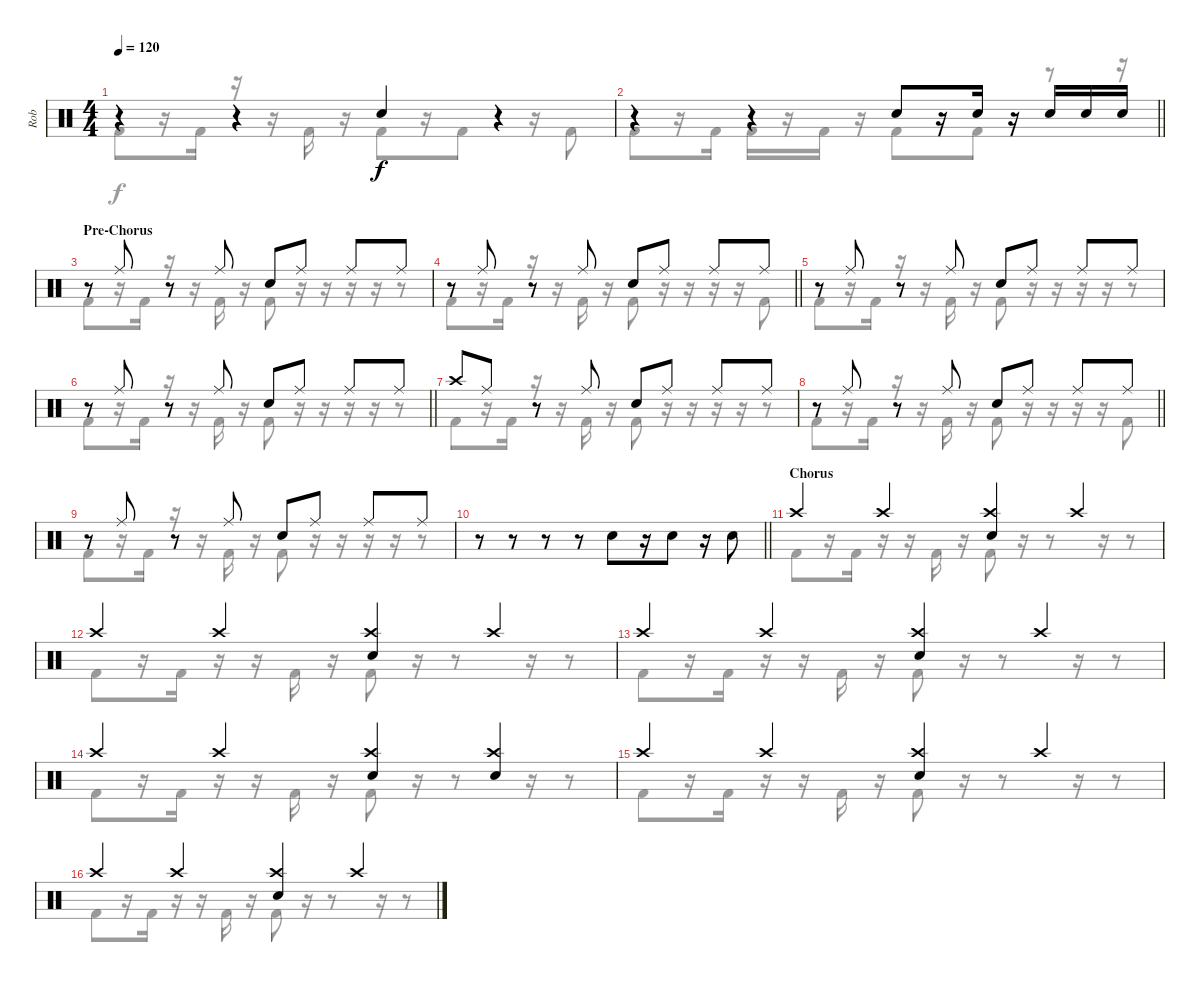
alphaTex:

\track ("Rob" "Rob") {instrument percussion}
\staff {score}
\articulation defaults
\voice
\ts (4 4)
\tempo 120
\clef neutral
\ks c
r.4{dy f} r.4 "Snare (hit) 2".4 r.4 |
\barLineRight lightlight
r.4 r.4 "Snare (hit) 2".8 r.16 "Snare (hit) 2".16 r.16 "Snare (hit) 2".16 "Snare (hit) 2".16 "Snare (hit) 2".16 |
\section ("" "Pre-Chorus")
r.8 "Ride (middle)".8 r.8 "Ride (middle)".8 "Snare (hit) 2".8 "Ride (middle)".8 "Ride (middle)".8 "Ride (middle)".8 |
\barLineRight lightlight
r.8 "Ride (middle)".8 r.8 "Ride (middle)".8 "Snare (hit) 2".8 "Ride (middle)".8 "Ride (middle)".8 "Ride (middle)".8 |
r.8 "Ride (middle)".8 r.8 "Ride (middle)".8 "Snare (hit) 2".8 "Ride (middle)".8 "Ride (middle)".8 "Ride (middle)".8 |
\barLineRight lightlight
r.8 "Ride (middle)".8 r.8 "Ride (middle)".8 "Snare (hit) 2".8 "Ride (middle)".8 "Ride (middle)".8 "Ride (middle)".8 |
"Crash high (hit)".8 "Ride (middle)".8 r.8 "Ride (middle)".8 "Snare (hit) 2".8 "Ride (middle)".8 "Ride (middle)".8 "Ride (middle)".8 |
\barLineRight lightlight
r.8 "Ride (middle)".8 r.8 "Ride (middle)".8 "Snare (hit) 2".8 "Ride (middle)".8 "Ride (middle)".8 "Ride (middle)".8 |
r.8 "Ride (middle)".8 r.8 "Ride (middle)".8 "Snare (hit) 2".8 "Ride (middle)".8 "Ride (middle)".8 "Ride (middle)".8 |
\barLineRight lightlight
r.8 r.8 r.8 r.8 "Snare (hit) 2".8 r.16 "Snare (hit) 2".8 r.16 "Snare (hit) 2".8 |
\section ("" "Chorus")
"Crash high (hit)".4 "Crash high (hit)".4 ("Crash high (hit)" "Snare (hit) 2").4 "Crash high (hit)".4 |
"Crash high (hit)".4 "Crash high (hit)".4 ("Crash high (hit)" "Snare (hit) 2").4 "Crash high (hit)".4 |
"Crash high (hit)".4 "Crash high (hit)".4 ("Crash high (hit)" "Snare (hit) 2").4 "Crash high (hit)".4 |
"Crash high (hit)".4 "Crash high (hit)".4 ("Crash high (hit)" "Snare (hit) 2").4 ("Crash high (hit)" "Snare (hit) 2").4 |
"Crash high (hit)".4 "Crash high (hit)".4 ("Crash high (hit)" "Snare (hit) 2").4 "Crash high (hit)".4 |
"Crash high (hit)".4 "Crash high (hit)".4 ("Crash high (hit)" "Snare (hit) 2").4 "Crash high (hit)".4
\voice
\clef neutral
\ottava regular
\simile none
\ks c "Kick (hit) 2".8{dy f}
r.16 "Kick (hit) 2".16 r.16 r.16 "Kick (hit) 2".16 r.16 "Kick (hit) 2".8 r.16 "Kick (hit) 2".8 r.16 "Kick (hit) 2".8 |
\barLineRight lightlight "Kick (hit) 2".8
r.16 "Kick (hit) 2".16 "Kick (hit) 2".16 r.16 "Kick (hit) 2".16 r.16 "Kick (hit) 2".8 r.16 "Kick (hit) 2".8 r.8 r.16 |
"Kick (hit) 2".8 r.16 "Kick (hit) 2".16 r.16 r.16 "Kick (hit) 2".16 r.16 "Kick (hit) 2".8 r.16 r.16 r.16 r.16 r.8 |
\barLineRight lightlight "Kick (hit) 2".8
r.16 "Kick (hit) 2".16 r.16 r.16 "Kick (hit) 2".16 r.16 "Kick (hit) 2".8 r.16 r.16 r.16 r.16 "Kick (hit) 2".8 |
"Kick (hit) 2".8 r.16 "Kick (hit) 2".16 r.16 r.16 "Kick (hit) 2".16 r.16 "Kick (hit) 2".8 r.16 r.16 r.16 r.16 r.8 |
\barLineRight lightlight "Kick (hit) 2".8
r.16 "Kick (hit) 2".16 r.16 r.16 "Kick (hit) 2".16 r.16 "Kick (hit) 2".8 r.16 r.16 r.16 r.16 r.8 |
"Kick (hit) 2".8 r.16 "Kick (hit) 2".16 r.16 r.16 "Kick (hit) 2".16 r.16 "Kick (hit) 2".8 r.16 r.16 r.16 r.16 r.8 |
\barLineRight lightlight "Kick (hit) 2".8
r.16 "Kick (hit) 2".16 r.16 r.16 "Kick (hit) 2".16 r.16 "Kick (hit) 2".8 r.16 r.16 r.16 r.16 "Kick (hit) 2".8 |
"Kick (hit) 2".8 r.16 "Kick (hit) 2".16 r.16 r.16 "Kick (hit) 2".16 r.16 "Kick (hit) 2".8 r.16 r.16 r.16 r.16 r.8 |
\barLineRight lightlight
|
"Kick (hit) 2".8 r.16 "Kick (hit) 2".16 r.16 r.16 "Kick (hit) 2".16 r.16 "Kick (hit) 2".8 r.16 r.8 r.16 r.8 |
"Kick (hit) 2".8 r.16 "Kick (hit) 2".16 r.16 r.16 "Kick (hit) 2".16 r.16 "Kick (hit) 2".8 r.16 r.8 r.16 r.8 |
"Kick (hit) 2".8 r.16 "Kick (hit) 2".16 r.16 r.16 "Kick (hit) 2".16 r.16 "Kick (hit) 2".8 r.16 r.8 r.16 r.8 |
"Kick (hit) 2".8 r.16 "Kick (hit) 2".16 r.16 r.16 "Kick (hit) 2".16 r.16 "Kick (hit) 2".8 r.16 r.8 r.16 r.8 |
"Kick (hit) 2".8 r.16 "Kick (hit) 2".16 r.16 r.16 "Kick (hit) 2".16 r.16 "Kick (hit) 2".8 r.16 r.8 r.16 r.8 |
"Kick (hit) 2".8 r.16 "Kick (hit) 2".16 r.16 r.16 "Kick (hit) 2".16 r.16 "Kick (hit) 2".8 r.16 r.8 r.16 r.8
